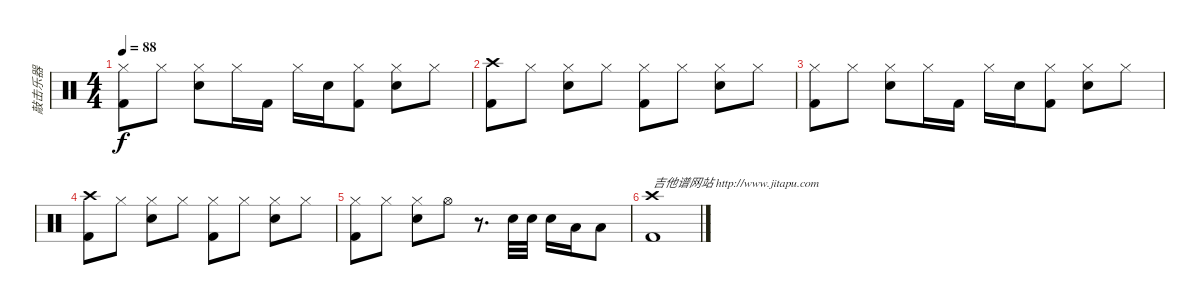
\track ("敲击乐器" "敲击乐器") {instrument percussion}
\staff {score}
\articulation defaults
\ts (4 4)
\tempo 88
\clef neutral
\ks c
("Hi-Hat (closed)" "Kick (hit) 2").8{dy f} "Hi-Hat (closed)".8 ("Hi-Hat (closed)" "Electric Snare (hit)").8 "Hi-Hat (closed)".16 "Kick (hit) 2".16 "Hi-Hat (closed)".16 "Electric Snare (hit)".16 ("Hi-Hat (closed)" "Kick (hit) 2").8 ("Hi-Hat (closed)" "Electric Snare (hit)").8 "Hi-Hat (closed)".8 |
("Crash high (hit)" "Kick (hit) 2").8 "Hi-Hat (closed)".8 ("Hi-Hat (closed)" "Electric Snare (hit)").8 "Hi-Hat (closed)".8 ("Hi-Hat (closed)" "Kick (hit) 2").8 "Hi-Hat (closed)".8 ("Hi-Hat (closed)" "Electric Snare (hit)").8 "Hi-Hat (closed)".8 |
("Hi-Hat (closed)" "Kick (hit) 2").8 "Hi-Hat (closed)".8 ("Hi-Hat (closed)" "Electric Snare (hit)").8 "Hi-Hat (closed)".16 "Kick (hit) 2".16 "Hi-Hat (closed)".16 "Electric Snare (hit)".16 ("Hi-Hat (closed)" "Kick (hit) 2").8 ("Hi-Hat (closed)" "Electric Snare (hit)").8 "Hi-Hat (closed)".8 |
("Crash high (hit)" "Kick (hit) 2").8 "Hi-Hat (closed)".8 ("Hi-Hat (closed)" "Electric Snare (hit)").8 "Hi-Hat (closed)".8 ("Hi-Hat (closed)" "Kick (hit) 2").8 "Hi-Hat (closed)".8 ("Hi-Hat (closed)" "Electric Snare (hit)").8 "Hi-Hat (closed)".8 |
("Hi-Hat (closed)" "Kick (hit) 2").8 "Hi-Hat (closed)".8 ("Hi-Hat (closed)" "Electric Snare (hit)").8 "Hi-Hat (open)".8 r.8{d} "Electric Snare (hit)".32 "Electric Snare (hit)".32 "Electric Snare (hit)".16 "Low Floor Tom (hit)".16 "Low Tom (hit)".8 |
("Crash high (hit)" "Kick (hit) 2").1{txt "吉他谱网站 http://www.jitapu.com"}
